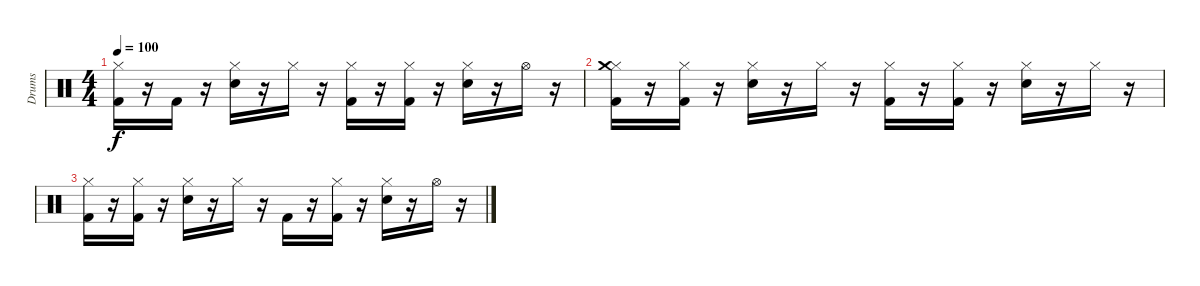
\bracketExtendMode groupsimilarinstruments
\otherSystemsTrackNameOrientation horizontal
\track ("Drumkit" "Drums") {instrument percussion}
\staff {score}
\articulation defaults
\ts (4 4)
\tempo 100
\clef neutral
\ks c
("Kick (hit) 2" "Hi-Hat (closed)").16{dy f beam Down} r.16{beam Down} "Kick (hit) 2".16{beam Down} r.16{beam Down} ("Snare (hit) 2" "Hi-Hat (closed)").16{beam Down} r.16{beam Down} "Hi-Hat (closed)".16{beam Down} r.16{beam Down} ("Kick (hit) 2" "Hi-Hat (closed)").16{beam Down} r.16{beam Down} ("Kick (hit) 2" "Hi-Hat (closed)").16{beam Down} r.16{beam Down} ("Snare (hit) 2" "Hi-Hat (closed)").16{beam Down} r.16{beam Down} "Hi-Hat (open)".16{beam Down} r.16{beam Down} |
("Kick (hit) 2" "Hi-Hat (closed)" "Crash medium (hit)").16{beam Down} r.16{beam Down} ("Kick (hit) 2" "Hi-Hat (closed)").16{beam Down} r.16{beam Down} ("Snare (hit) 2" "Hi-Hat (closed)").16{beam Down} r.16{beam Down} "Hi-Hat (closed)".16{beam Down} r.16{beam Down} ("Kick (hit) 2" "Hi-Hat (closed)").16{beam Down} r.16{beam Down} ("Kick (hit) 2" "Hi-Hat (closed)").16{beam Down} r.16{beam Down} ("Snare (hit) 2" "Hi-Hat (closed)").16{beam Down} r.16{beam Down} "Hi-Hat (closed)".16{beam Down} r.16{beam Down} |
("Kick (hit) 2" "Hi-Hat (closed)").16{beam Down} r.16{beam Down} ("Kick (hit) 2" "Hi-Hat (closed)").16{beam Down} r.16{beam Down} ("Snare (hit) 2" "Hi-Hat (closed)").16{beam Down} r.16{beam Down} "Hi-Hat (closed)".16{beam Down} r.16{beam Down} "Kick (hit) 2".16{beam Down} r.16{beam Down} ("Kick (hit) 2" "Hi-Hat (closed)").16{beam Down} r.16{beam Down} ("Snare (hit) 2" "Hi-Hat (closed)").16{beam Down} r.16{beam Down} "Hi-Hat (open)".16{beam Down} r.16{beam Down}
